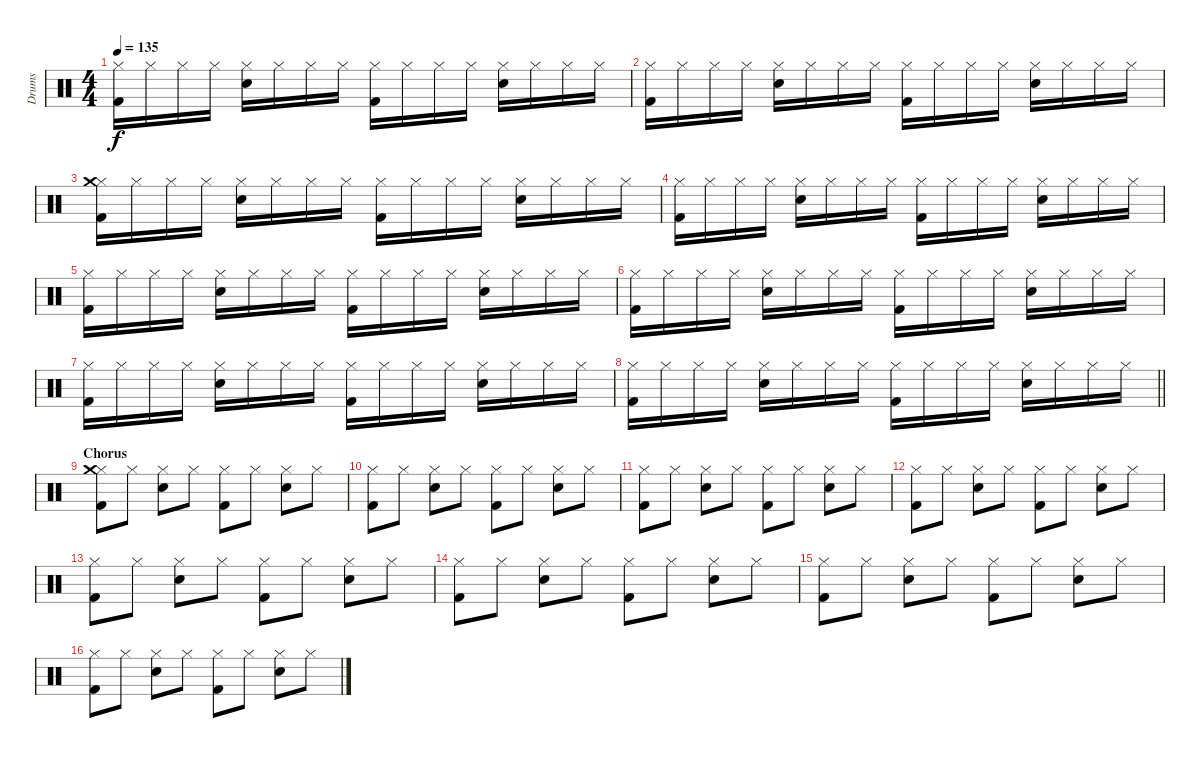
\track ("Drums" "Drums") {instrument percussion}
\staff {score}
\articulation defaults
\ts (4 4)
\tempo 135
\clef neutral
\ks c
("Hi-Hat (closed)" "Kick (hit) 2").16{dy f} "Hi-Hat (closed)".16 "Hi-Hat (closed)".16 "Hi-Hat (closed)".16 ("Hi-Hat (closed)" "Snare (hit) 2").16 "Hi-Hat (closed)".16 "Hi-Hat (closed)".16 "Hi-Hat (closed)".16 ("Hi-Hat (closed)" "Kick (hit) 2").16 "Hi-Hat (closed)".16 "Hi-Hat (closed)".16 "Hi-Hat (closed)".16 ("Hi-Hat (closed)" "Snare (hit) 2").16 "Hi-Hat (closed)".16 "Hi-Hat (closed)".16 "Hi-Hat (closed)".16 |
("Hi-Hat (closed)" "Kick (hit) 2").16 "Hi-Hat (closed)".16 "Hi-Hat (closed)".16 "Hi-Hat (closed)".16 ("Hi-Hat (closed)" "Snare (hit) 2").16 "Hi-Hat (closed)".16 "Hi-Hat (closed)".16 "Hi-Hat (closed)".16 ("Hi-Hat (closed)" "Kick (hit) 2").16 "Hi-Hat (closed)".16 "Hi-Hat (closed)".16 "Hi-Hat (closed)".16 ("Hi-Hat (closed)" "Snare (hit) 2").16 "Hi-Hat (closed)".16 "Hi-Hat (closed)".16 "Hi-Hat (closed)".16 |
("Hi-Hat (closed)" "Kick (hit) 2" "Crash medium (hit)").16 "Hi-Hat (closed)".16 "Hi-Hat (closed)".16 "Hi-Hat (closed)".16 ("Hi-Hat (closed)" "Snare (hit) 2").16 "Hi-Hat (closed)".16 "Hi-Hat (closed)".16 "Hi-Hat (closed)".16 ("Hi-Hat (closed)" "Kick (hit) 2").16 "Hi-Hat (closed)".16 "Hi-Hat (closed)".16 "Hi-Hat (closed)".16 ("Hi-Hat (closed)" "Snare (hit) 2").16 "Hi-Hat (closed)".16 "Hi-Hat (closed)".16 "Hi-Hat (closed)".16 |
("Hi-Hat (closed)" "Kick (hit) 2").16 "Hi-Hat (closed)".16 "Hi-Hat (closed)".16 "Hi-Hat (closed)".16 ("Hi-Hat (closed)" "Snare (hit) 2").16 "Hi-Hat (closed)".16 "Hi-Hat (closed)".16 "Hi-Hat (closed)".16 ("Hi-Hat (closed)" "Kick (hit) 2").16 "Hi-Hat (closed)".16 "Hi-Hat (closed)".16 "Hi-Hat (closed)".16 ("Hi-Hat (closed)" "Snare (hit) 2").16 "Hi-Hat (closed)".16 "Hi-Hat (closed)".16 "Hi-Hat (closed)".16 |
("Hi-Hat (closed)" "Kick (hit) 2").16 "Hi-Hat (closed)".16 "Hi-Hat (closed)".16 "Hi-Hat (closed)".16 ("Hi-Hat (closed)" "Snare (hit) 2").16 "Hi-Hat (closed)".16 "Hi-Hat (closed)".16 "Hi-Hat (closed)".16 ("Hi-Hat (closed)" "Kick (hit) 2").16 "Hi-Hat (closed)".16 "Hi-Hat (closed)".16 "Hi-Hat (closed)".16 ("Hi-Hat (closed)" "Snare (hit) 2").16 "Hi-Hat (closed)".16 "Hi-Hat (closed)".16 "Hi-Hat (closed)".16 |
("Hi-Hat (closed)" "Kick (hit) 2").16 "Hi-Hat (closed)".16 "Hi-Hat (closed)".16 "Hi-Hat (closed)".16 ("Hi-Hat (closed)" "Snare (hit) 2").16 "Hi-Hat (closed)".16 "Hi-Hat (closed)".16 "Hi-Hat (closed)".16 ("Hi-Hat (closed)" "Kick (hit) 2").16 "Hi-Hat (closed)".16 "Hi-Hat (closed)".16 "Hi-Hat (closed)".16 ("Hi-Hat (closed)" "Snare (hit) 2").16 "Hi-Hat (closed)".16 "Hi-Hat (closed)".16 "Hi-Hat (closed)".16 |
("Hi-Hat (closed)" "Kick (hit) 2").16 "Hi-Hat (closed)".16 "Hi-Hat (closed)".16 "Hi-Hat (closed)".16 ("Hi-Hat (closed)" "Snare (hit) 2").16 "Hi-Hat (closed)".16 "Hi-Hat (closed)".16 "Hi-Hat (closed)".16 ("Hi-Hat (closed)" "Kick (hit) 2").16 "Hi-Hat (closed)".16 "Hi-Hat (closed)".16 "Hi-Hat (closed)".16 ("Hi-Hat (closed)" "Snare (hit) 2").16 "Hi-Hat (closed)".16 "Hi-Hat (closed)".16 "Hi-Hat (closed)".16 |
\barLineRight lightlight
("Hi-Hat (closed)" "Kick (hit) 2").16 "Hi-Hat (closed)".16 "Hi-Hat (closed)".16 "Hi-Hat (closed)".16 ("Hi-Hat (closed)" "Snare (hit) 2").16 "Hi-Hat (closed)".16 "Hi-Hat (closed)".16 "Hi-Hat (closed)".16 ("Hi-Hat (closed)" "Kick (hit) 2").16 "Hi-Hat (closed)".16 "Hi-Hat (closed)".16 "Hi-Hat (closed)".16 ("Hi-Hat (closed)" "Snare (hit) 2").16 "Hi-Hat (closed)".16 "Hi-Hat (closed)".16 "Hi-Hat (closed)".16 |
\section ("" "Chorus")
("Hi-Hat (closed)" "Kick (hit) 2" "Crash medium (hit)").8 "Hi-Hat (closed)".8 ("Hi-Hat (closed)" "Snare (hit) 2").8 "Hi-Hat (closed)".8 ("Hi-Hat (closed)" "Kick (hit) 2").8 "Hi-Hat (closed)".8 ("Hi-Hat (closed)" "Snare (hit) 2").8 "Hi-Hat (closed)".8 |
("Hi-Hat (closed)" "Kick (hit) 2").8 "Hi-Hat (closed)".8 ("Hi-Hat (closed)" "Snare (hit) 2").8 "Hi-Hat (closed)".8 ("Hi-Hat (closed)" "Kick (hit) 2").8 "Hi-Hat (closed)".8 ("Hi-Hat (closed)" "Snare (hit) 2").8 "Hi-Hat (closed)".8 |
("Hi-Hat (closed)" "Kick (hit) 2").8 "Hi-Hat (closed)".8 ("Hi-Hat (closed)" "Snare (hit) 2").8 "Hi-Hat (closed)".8 ("Hi-Hat (closed)" "Kick (hit) 2").8 "Hi-Hat (closed)".8 ("Hi-Hat (closed)" "Snare (hit) 2").8 "Hi-Hat (closed)".8 |
("Hi-Hat (closed)" "Kick (hit) 2").8 "Hi-Hat (closed)".8 ("Hi-Hat (closed)" "Snare (hit) 2").8 "Hi-Hat (closed)".8 ("Hi-Hat (closed)" "Kick (hit) 2").8 "Hi-Hat (closed)".8 ("Hi-Hat (closed)" "Snare (hit) 2").8 "Hi-Hat (closed)".8 |
("Hi-Hat (closed)" "Kick (hit) 2").8 "Hi-Hat (closed)".8 ("Hi-Hat (closed)" "Snare (hit) 2").8 "Hi-Hat (closed)".8 ("Hi-Hat (closed)" "Kick (hit) 2").8 "Hi-Hat (closed)".8 ("Hi-Hat (closed)" "Snare (hit) 2").8 "Hi-Hat (closed)".8 |
("Hi-Hat (closed)" "Kick (hit) 2").8 "Hi-Hat (closed)".8 ("Hi-Hat (closed)" "Snare (hit) 2").8 "Hi-Hat (closed)".8 ("Hi-Hat (closed)" "Kick (hit) 2").8 "Hi-Hat (closed)".8 ("Hi-Hat (closed)" "Snare (hit) 2").8 "Hi-Hat (closed)".8 |
("Hi-Hat (closed)" "Kick (hit) 2").8 "Hi-Hat (closed)".8 ("Hi-Hat (closed)" "Snare (hit) 2").8 "Hi-Hat (closed)".8 ("Hi-Hat (closed)" "Kick (hit) 2").8 "Hi-Hat (closed)".8 ("Hi-Hat (closed)" "Snare (hit) 2").8 "Hi-Hat (closed)".8 |
("Hi-Hat (closed)" "Kick (hit) 2").8 "Hi-Hat (closed)".8 ("Hi-Hat (closed)" "Snare (hit) 2").8 "Hi-Hat (closed)".8 ("Hi-Hat (closed)" "Kick (hit) 2").8 "Hi-Hat (closed)".8 ("Hi-Hat (closed)" "Snare (hit) 2").8 "Hi-Hat (closed)".8
